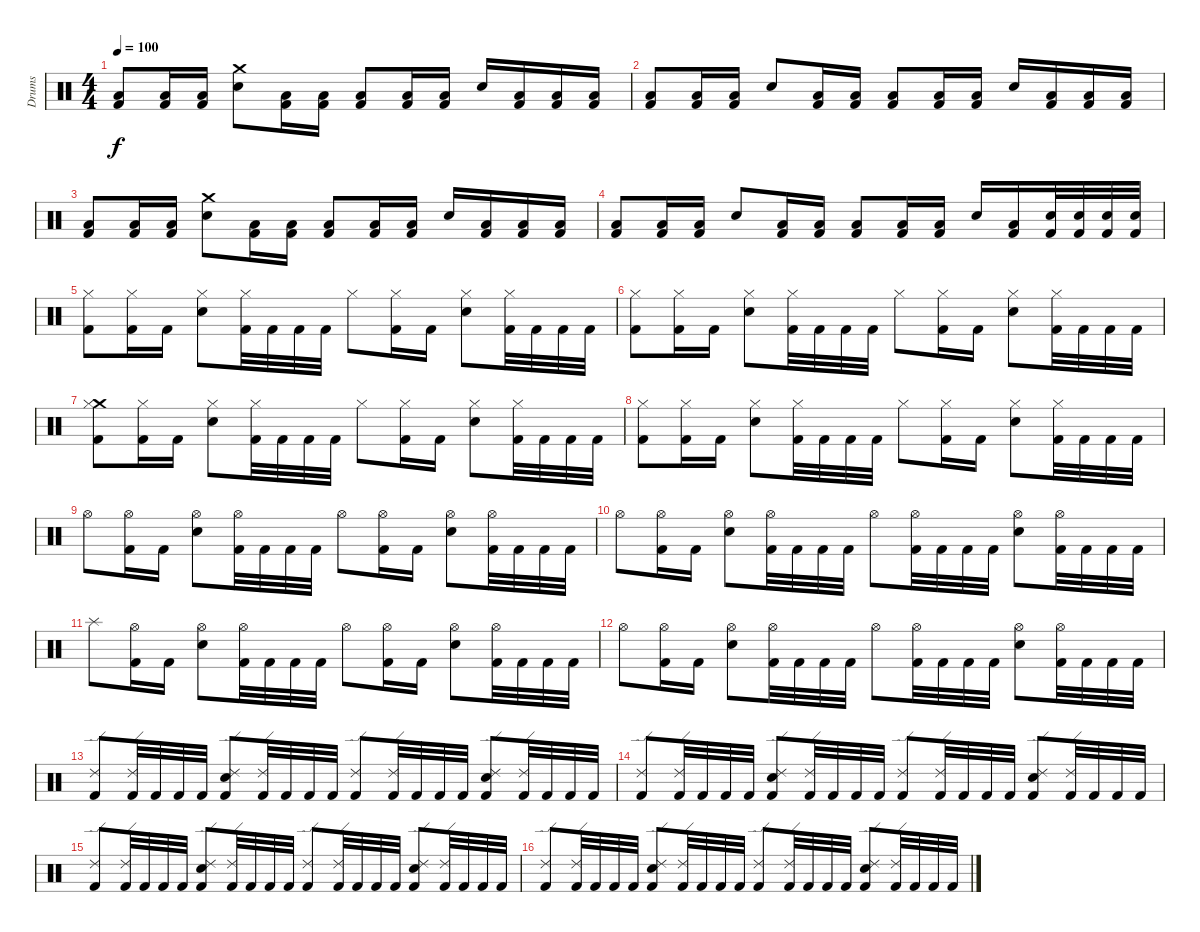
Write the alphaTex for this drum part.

\track ("Drums" "Drums") {instrument percussion}
\staff {score}
\articulation defaults
\ts (4 4)
\tempo 100
\clef neutral
\ks c
("Low Floor Tom (hit)" "Kick (hit) 2").8{dy f} ("Low Floor Tom (hit)" "Kick (hit) 2").16 ("Low Floor Tom (hit)" "Kick (hit) 2").16 ("Crash medium (hit)" "Electric Snare (hit)").8 ("Low Floor Tom (hit)" "Kick (hit) 2").16 ("Low Floor Tom (hit)" "Kick (hit) 2").16 ("Low Floor Tom (hit)" "Kick (hit) 2").8 ("Low Floor Tom (hit)" "Kick (hit) 2").16 ("Low Floor Tom (hit)" "Kick (hit) 2").16 "Electric Snare (hit)".16 ("Low Floor Tom (hit)" "Kick (hit) 2").16 ("Low Floor Tom (hit)" "Kick (hit) 2").16 ("Low Floor Tom (hit)" "Kick (hit) 2").16 |
("Low Floor Tom (hit)" "Kick (hit) 2").8 ("Low Floor Tom (hit)" "Kick (hit) 2").16 ("Low Floor Tom (hit)" "Kick (hit) 2").16 "Electric Snare (hit)".8 ("Low Floor Tom (hit)" "Kick (hit) 2").16 ("Low Floor Tom (hit)" "Kick (hit) 2").16 ("Low Floor Tom (hit)" "Kick (hit) 2").8 ("Low Floor Tom (hit)" "Kick (hit) 2").16 ("Low Floor Tom (hit)" "Kick (hit) 2").16 "Electric Snare (hit)".16 ("Low Floor Tom (hit)" "Kick (hit) 2").16 ("Low Floor Tom (hit)" "Kick (hit) 2").16 ("Low Floor Tom (hit)" "Kick (hit) 2").16 |
("Low Floor Tom (hit)" "Kick (hit) 2").8 ("Low Floor Tom (hit)" "Kick (hit) 2").16 ("Low Floor Tom (hit)" "Kick (hit) 2").16 ("Crash medium (hit)" "Electric Snare (hit)").8 ("Low Floor Tom (hit)" "Kick (hit) 2").16 ("Low Floor Tom (hit)" "Kick (hit) 2").16 ("Low Floor Tom (hit)" "Kick (hit) 2").8 ("Low Floor Tom (hit)" "Kick (hit) 2").16 ("Low Floor Tom (hit)" "Kick (hit) 2").16 "Electric Snare (hit)".16 ("Low Floor Tom (hit)" "Kick (hit) 2").16 ("Low Floor Tom (hit)" "Kick (hit) 2").16 ("Low Floor Tom (hit)" "Kick (hit) 2").16 |
("Low Floor Tom (hit)" "Kick (hit) 2").8 ("Low Floor Tom (hit)" "Kick (hit) 2").16 ("Low Floor Tom (hit)" "Kick (hit) 2").16 "Electric Snare (hit)".8 ("Low Floor Tom (hit)" "Kick (hit) 2").16 ("Low Floor Tom (hit)" "Kick (hit) 2").16 ("Low Floor Tom (hit)" "Kick (hit) 2").8 ("Low Floor Tom (hit)" "Kick (hit) 2").16 ("Low Floor Tom (hit)" "Kick (hit) 2").16 "Electric Snare (hit)".16 ("Low Floor Tom (hit)" "Kick (hit) 2").16 ("Electric Snare (hit)" "Kick (hit) 2").32 ("Electric Snare (hit)" "Kick (hit) 2").32 ("Electric Snare (hit)" "Kick (hit) 2").32 ("Electric Snare (hit)" "Kick (hit) 2").32 |
("Hi-Hat (closed)" "Kick (hit) 2").8 ("Hi-Hat (closed)" "Kick (hit) 2").16 "Kick (hit) 2".16 ("Hi-Hat (closed)" "Electric Snare (hit)").8 ("Hi-Hat (closed)" "Kick (hit) 2").32 "Kick (hit) 2".32 "Kick (hit) 2".32 "Kick (hit) 2".32 "Hi-Hat (closed)".8 ("Hi-Hat (closed)" "Kick (hit) 2").16 "Kick (hit) 2".16 ("Hi-Hat (closed)" "Electric Snare (hit)").8 ("Hi-Hat (closed)" "Kick (hit) 2").32 "Kick (hit) 2".32 "Kick (hit) 2".32 "Kick (hit) 2".32 |
("Hi-Hat (closed)" "Kick (hit) 2").8 ("Hi-Hat (closed)" "Kick (hit) 2").16 "Kick (hit) 2".16 ("Hi-Hat (closed)" "Electric Snare (hit)").8 ("Hi-Hat (closed)" "Kick (hit) 2").32 "Kick (hit) 2".32 "Kick (hit) 2".32 "Kick (hit) 2".32 "Hi-Hat (closed)".8 ("Hi-Hat (closed)" "Kick (hit) 2").16 "Kick (hit) 2".16 ("Hi-Hat (closed)" "Electric Snare (hit)").8 ("Hi-Hat (closed)" "Kick (hit) 2").32 "Kick (hit) 2".32 "Kick (hit) 2".32 "Kick (hit) 2".32 |
("Crash medium (hit)" "Hi-Hat (closed)" "Kick (hit) 2").8 ("Hi-Hat (closed)" "Kick (hit) 2").16 "Kick (hit) 2".16 ("Hi-Hat (closed)" "Electric Snare (hit)").8 ("Hi-Hat (closed)" "Kick (hit) 2").32 "Kick (hit) 2".32 "Kick (hit) 2".32 "Kick (hit) 2".32 "Hi-Hat (closed)".8 ("Hi-Hat (closed)" "Kick (hit) 2").16 "Kick (hit) 2".16 ("Hi-Hat (closed)" "Electric Snare (hit)").8 ("Hi-Hat (closed)" "Kick (hit) 2").32 "Kick (hit) 2".32 "Kick (hit) 2".32 "Kick (hit) 2".32 |
("Hi-Hat (closed)" "Kick (hit) 2").8 ("Hi-Hat (closed)" "Kick (hit) 2").16 "Kick (hit) 2".16 ("Hi-Hat (closed)" "Electric Snare (hit)").8 ("Hi-Hat (closed)" "Kick (hit) 2").32 "Kick (hit) 2".32 "Kick (hit) 2".32 "Kick (hit) 2".32 "Hi-Hat (closed)".8 ("Hi-Hat (closed)" "Kick (hit) 2").16 "Kick (hit) 2".16 ("Hi-Hat (closed)" "Electric Snare (hit)").8 ("Hi-Hat (closed)" "Kick (hit) 2").32 "Kick (hit) 2".32 "Kick (hit) 2".32 "Kick (hit) 2".32 |
"Hi-Hat (open)".8 ("Hi-Hat (open)" "Kick (hit) 2").16 "Kick (hit) 2".16 ("Hi-Hat (open)" "Electric Snare (hit)").8 ("Hi-Hat (open)" "Kick (hit) 2").32 "Kick (hit) 2".32 "Kick (hit) 2".32 "Kick (hit) 2".32 "Hi-Hat (open)".8 ("Hi-Hat (open)" "Kick (hit) 2").16 "Kick (hit) 2".16 ("Hi-Hat (open)" "Electric Snare (hit)").8 ("Hi-Hat (open)" "Kick (hit) 2").32 "Kick (hit) 2".32 "Kick (hit) 2".32 "Kick (hit) 2".32 |
"Hi-Hat (open)".8 ("Hi-Hat (open)" "Kick (hit) 2").16 "Kick (hit) 2".16 ("Hi-Hat (open)" "Electric Snare (hit)").8 ("Hi-Hat (open)" "Kick (hit) 2").32 "Kick (hit) 2".32 "Kick (hit) 2".32 "Kick (hit) 2".32 "Hi-Hat (open)".8 ("Hi-Hat (open)" "Kick (hit) 2").32 "Kick (hit) 2".32 "Kick (hit) 2".32 "Kick (hit) 2".32 ("Hi-Hat (open)" "Electric Snare (hit)").8 ("Hi-Hat (open)" "Kick (hit) 2").32 "Kick (hit) 2".32 "Kick (hit) 2".32 "Kick (hit) 2".32 |
"Splash (hit)".8 ("Hi-Hat (open)" "Kick (hit) 2").16 "Kick (hit) 2".16 ("Hi-Hat (open)" "Electric Snare (hit)").8 ("Hi-Hat (open)" "Kick (hit) 2").32 "Kick (hit) 2".32 "Kick (hit) 2".32 "Kick (hit) 2".32 "Hi-Hat (open)".8 ("Hi-Hat (open)" "Kick (hit) 2").16 "Kick (hit) 2".16 ("Hi-Hat (open)" "Electric Snare (hit)").8 ("Hi-Hat (open)" "Kick (hit) 2").32 "Kick (hit) 2".32 "Kick (hit) 2".32 "Kick (hit) 2".32 |
"Hi-Hat (open)".8 ("Hi-Hat (open)" "Kick (hit) 2").16 "Kick (hit) 2".16 ("Hi-Hat (open)" "Electric Snare (hit)").8 ("Hi-Hat (open)" "Kick (hit) 2").32 "Kick (hit) 2".32 "Kick (hit) 2".32 "Kick (hit) 2".32 "Hi-Hat (open)".8 ("Hi-Hat (open)" "Kick (hit) 2").32 "Kick (hit) 2".32 "Kick (hit) 2".32 "Kick (hit) 2".32 ("Hi-Hat (open)" "Electric Snare (hit)").8 ("Hi-Hat (open)" "Kick (hit) 2").32 "Kick (hit) 2".32 "Kick (hit) 2".32 "Kick (hit) 2".32 |
("Ride (edge) 2" "Kick (hit) 2").8 ("Ride (edge) 2" "Kick (hit) 2").32 "Kick (hit) 2".32 "Kick (hit) 2".32 "Kick (hit) 2".32 ("Ride (edge) 2" "Electric Snare (hit)" "Kick (hit) 2").8 ("Ride (edge) 2" "Kick (hit) 2").32 "Kick (hit) 2".32 "Kick (hit) 2".32 "Kick (hit) 2".32 ("Ride (edge) 2" "Kick (hit) 2").8 ("Ride (edge) 2" "Kick (hit) 2").32 "Kick (hit) 2".32 "Kick (hit) 2".32 "Kick (hit) 2".32 ("Ride (edge) 2" "Electric Snare (hit)" "Kick (hit) 2").8 ("Ride (edge) 2" "Kick (hit) 2").32 "Kick (hit) 2".32 "Kick (hit) 2".32 "Kick (hit) 2".32 |
("Ride (edge) 2" "Kick (hit) 2").8 ("Ride (edge) 2" "Kick (hit) 2").32 "Kick (hit) 2".32 "Kick (hit) 2".32 "Kick (hit) 2".32 ("Ride (edge) 2" "Electric Snare (hit)" "Kick (hit) 2").8 ("Ride (edge) 2" "Kick (hit) 2").32 "Kick (hit) 2".32 "Kick (hit) 2".32 "Kick (hit) 2".32 ("Ride (edge) 2" "Kick (hit) 2").8 ("Ride (edge) 2" "Kick (hit) 2").32 "Kick (hit) 2".32 "Kick (hit) 2".32 "Kick (hit) 2".32 ("Ride (edge) 2" "Electric Snare (hit)" "Kick (hit) 2").8 ("Ride (edge) 2" "Kick (hit) 2").32 "Kick (hit) 2".32 "Kick (hit) 2".32 "Kick (hit) 2".32 |
("Ride (edge) 2" "Kick (hit) 2").8 ("Ride (edge) 2" "Kick (hit) 2").32 "Kick (hit) 2".32 "Kick (hit) 2".32 "Kick (hit) 2".32 ("Ride (edge) 2" "Electric Snare (hit)" "Kick (hit) 2").8 ("Ride (edge) 2" "Kick (hit) 2").32 "Kick (hit) 2".32 "Kick (hit) 2".32 "Kick (hit) 2".32 ("Ride (edge) 2" "Kick (hit) 2").8 ("Ride (edge) 2" "Kick (hit) 2").32 "Kick (hit) 2".32 "Kick (hit) 2".32 "Kick (hit) 2".32 ("Ride (edge) 2" "Electric Snare (hit)" "Kick (hit) 2").8 ("Ride (edge) 2" "Kick (hit) 2").32 "Kick (hit) 2".32 "Kick (hit) 2".32 "Kick (hit) 2".32 |
("Ride (edge) 2" "Kick (hit) 2").8 ("Ride (edge) 2" "Kick (hit) 2").32 "Kick (hit) 2".32 "Kick (hit) 2".32 "Kick (hit) 2".32 ("Ride (edge) 2" "Electric Snare (hit)" "Kick (hit) 2").8 ("Ride (edge) 2" "Kick (hit) 2").32 "Kick (hit) 2".32 "Kick (hit) 2".32 "Kick (hit) 2".32 ("Ride (edge) 2" "Kick (hit) 2").8 ("Ride (edge) 2" "Kick (hit) 2").32 "Kick (hit) 2".32 "Kick (hit) 2".32 "Kick (hit) 2".32 ("Ride (edge) 2" "Electric Snare (hit)" "Kick (hit) 2").8 ("Ride (edge) 2" "Kick (hit) 2").32 "Kick (hit) 2".32 "Kick (hit) 2".32 "Kick (hit) 2".32
